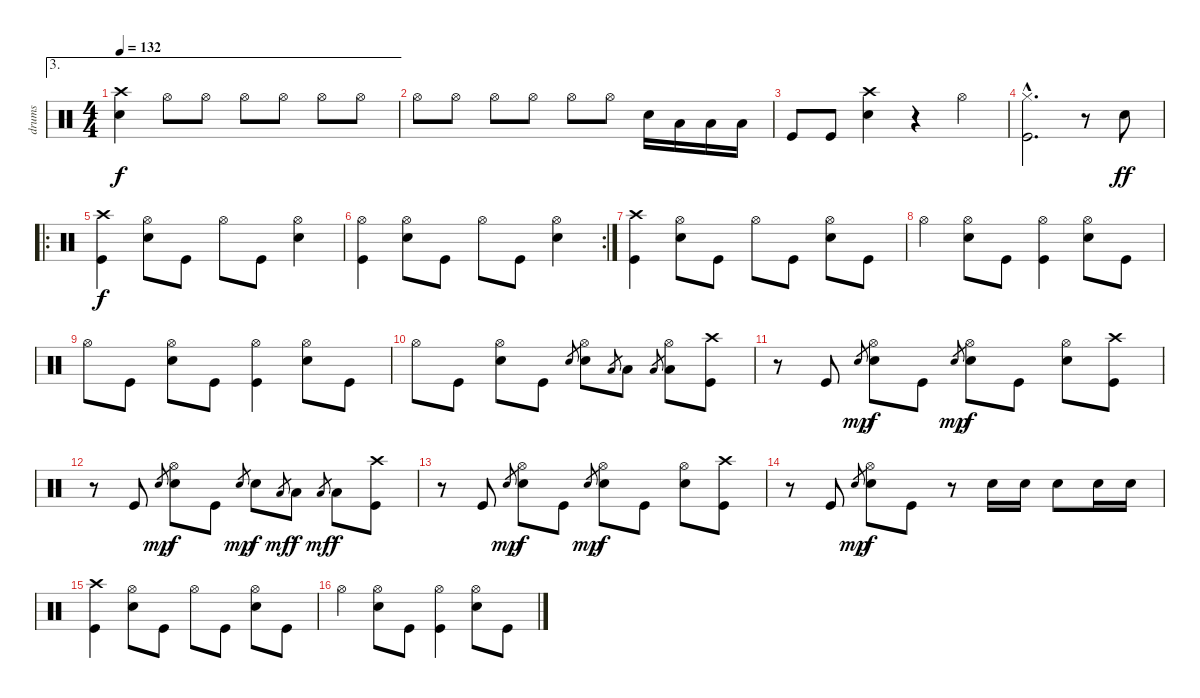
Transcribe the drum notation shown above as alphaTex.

\track ("drums" "drums") {instrument percussion}
\staff {score}
\articulation defaults
\ae 3
\ts (4 4)
\tempo 132
\clef neutral
\ks c
("Crash high (hit)" "Electric Snare (hit)").4{dy f} "Hi-Hat (open)".8 "Hi-Hat (open)".8 "Hi-Hat (open)".8 "Hi-Hat (open)".8 "Hi-Hat (open)".8 "Hi-Hat (open)".8 |
"Hi-Hat (open)".8 "Hi-Hat (open)".8 "Hi-Hat (open)".8 "Hi-Hat (open)".8 "Hi-Hat (open)".8 "Hi-Hat (open)".8 "Electric Snare (hit)".16 "Low Tom (hit)".16 "Low Floor Tom (hit)".16 "Low Floor Tom (hit)".16 |
"Kick (hit)".8 "Kick (hit)".8 ("Crash high (hit)" "Electric Snare (hit)").4 r.4 "Hi-Hat (open)".4 |
("Hi-Hat (closed)"{hac} "Kick (hit)"{hac}).2{d} r.8 "Electric Snare (hit)".8{dy ff} |
\ro
("Crash high (hit)" "Kick (hit)").4{dy f} ("Hi-Hat (open)" "Electric Snare (hit)").8 "Kick (hit)".8 "Hi-Hat (open)".8 "Kick (hit)".8 ("Hi-Hat (open)" "Electric Snare (hit)").4 |
\rc 2
("Hi-Hat (open)" "Kick (hit)").4 ("Hi-Hat (open)" "Electric Snare (hit)").8 "Kick (hit)".8 "Hi-Hat (open)".8 "Kick (hit)".8 ("Hi-Hat (open)" "Electric Snare (hit)").4 |
("Crash high (hit)" "Kick (hit)").4 ("Hi-Hat (open)" "Electric Snare (hit)").8 "Kick (hit)".8 "Hi-Hat (open)".8 "Kick (hit)".8 ("Hi-Hat (open)" "Electric Snare (hit)").8 "Kick (hit)".8 |
"Hi-Hat (open)".4 ("Hi-Hat (open)" "Electric Snare (hit)").8 "Kick (hit)".8 ("Hi-Hat (open)" "Kick (hit)").4 ("Hi-Hat (open)" "Electric Snare (hit)").8 "Kick (hit)".8 |
"Hi-Hat (open)".8 "Kick (hit)".8 ("Hi-Hat (open)" "Electric Snare (hit)").8 "Kick (hit)".8 ("Hi-Hat (open)" "Kick (hit)").4 ("Hi-Hat (open)" "Electric Snare (hit)").8 "Kick (hit)".8 |
"Hi-Hat (open)".8 "Kick (hit)".8 ("Hi-Hat (open)" "Electric Snare (hit)").8 "Kick (hit)".8 "Electric Snare (hit)".8{gr} ("Hi-Hat (open)" "Electric Snare (hit)").8 "Low Tom (hit)".8{gr} "Low Tom (hit)".8 "Low Floor Tom (hit)".8{gr} ("Hi-Hat (open)" "Low Floor Tom (hit)").8 ("Crash high (hit)" "Kick (hit)").8 |
r.8 "Kick (hit)".8 "Electric Snare (hit)".8{gr dy mp} ("Hi-Hat (open)" "Electric Snare (hit)").8{dy f} "Kick (hit)".8 "Electric Snare (hit)".8{gr dy mp} ("Hi-Hat (open)" "Electric Snare (hit)").8{dy f} "Kick (hit)".8 ("Hi-Hat (open)" "Electric Snare (hit)").8 ("Crash high (hit)" "Kick (hit)").8 |
r.8 "Kick (hit)".8 "Electric Snare (hit)".8{gr dy mp} ("Hi-Hat (open)" "Electric Snare (hit)").8{dy f} "Kick (hit)".8 "Electric Snare (hit)".8{gr dy mp} "Electric Snare (hit)".8{dy f} "Low Tom (hit)".8{gr dy mf} "Low Tom (hit)".8{dy f} "Low Floor Tom (hit)".8{gr dy mf} "Low Floor Tom (hit)".8{dy f} ("Crash high (hit)" "Kick (hit)").8 |
r.8 "Kick (hit)".8 "Electric Snare (hit)".8{gr dy mp} ("Hi-Hat (open)" "Electric Snare (hit)").8{dy f} "Kick (hit)".8 "Electric Snare (hit)".8{gr dy mp} ("Hi-Hat (open)" "Electric Snare (hit)").8{dy f} "Kick (hit)".8 ("Hi-Hat (open)" "Electric Snare (hit)").8 ("Crash high (hit)" "Kick (hit)").8 |
r.8 "Kick (hit)".8 "Electric Snare (hit)".8{gr dy mp} ("Hi-Hat (open)" "Electric Snare (hit)").8{dy f} "Kick (hit)".8 r.8 "Electric Snare (hit)".16 "Electric Snare (hit)".16 "Electric Snare (hit)".8 "Electric Snare (hit)".16 "Electric Snare (hit)".16 |
("Crash high (hit)" "Kick (hit)").4 ("Hi-Hat (open)" "Electric Snare (hit)").8 "Kick (hit)".8 "Hi-Hat (open)".8 "Kick (hit)".8 ("Hi-Hat (open)" "Electric Snare (hit)").8 "Kick (hit)".8 |
"Hi-Hat (open)".4 ("Hi-Hat (open)" "Electric Snare (hit)").8 "Kick (hit)".8 ("Hi-Hat (open)" "Kick (hit)").4 ("Hi-Hat (open)" "Electric Snare (hit)").8 "Kick (hit)".8
